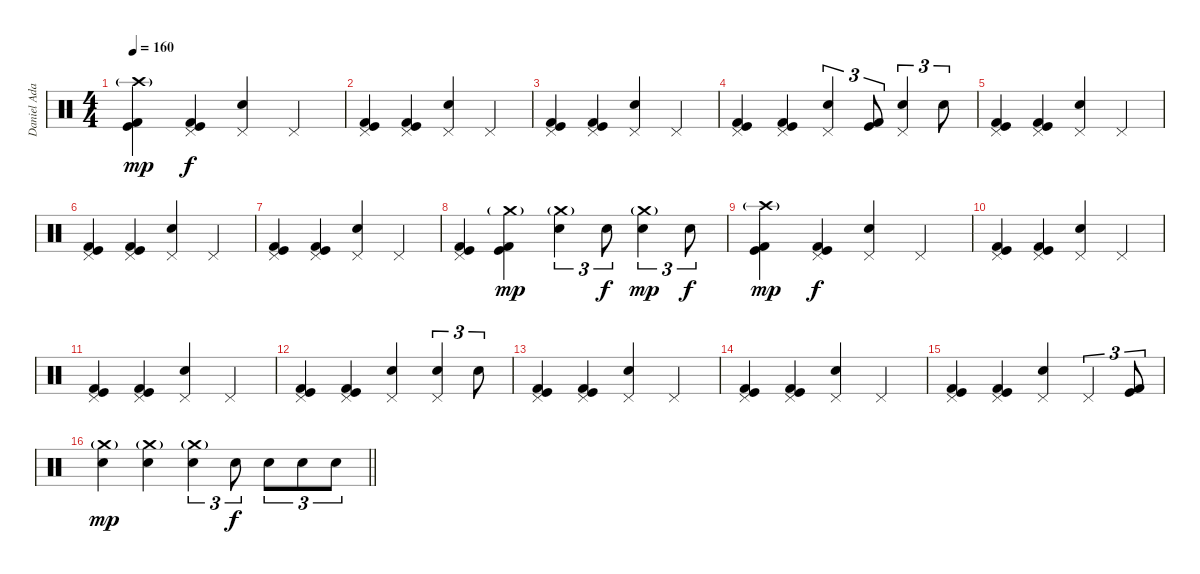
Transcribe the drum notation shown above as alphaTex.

\track ("Daniel Adair" "Daniel Ada") {instrument percussion}
\staff {score}
\articulation defaults
\ts (4 4)
\tempo 160
\clef neutral
\ks c
("Crash high (hit)"{g} "Kick (hit)" "Kick (hit) 2").4{dy mp} ("Pedal Hi-Hat (hit)" "Kick (hit)" "Kick (hit) 2").4{dy f} ("Pedal Hi-Hat (hit)" "Electric Snare (hit)").4 "Pedal Hi-Hat (hit)".4 |
("Pedal Hi-Hat (hit)" "Kick (hit)" "Kick (hit) 2").4 ("Pedal Hi-Hat (hit)" "Kick (hit)" "Kick (hit) 2").4 ("Pedal Hi-Hat (hit)" "Electric Snare (hit)").4 "Pedal Hi-Hat (hit)".4 |
("Pedal Hi-Hat (hit)" "Kick (hit)" "Kick (hit) 2").4 ("Pedal Hi-Hat (hit)" "Kick (hit)" "Kick (hit) 2").4 ("Pedal Hi-Hat (hit)" "Electric Snare (hit)").4 "Pedal Hi-Hat (hit)".4 |
("Pedal Hi-Hat (hit)" "Kick (hit)" "Kick (hit) 2").4 ("Pedal Hi-Hat (hit)" "Kick (hit)" "Kick (hit) 2").4 ("Pedal Hi-Hat (hit)" "Electric Snare (hit)").4{tu (3 2)} ("Kick (hit)" "Kick (hit) 2").8{tu (3 2)} ("Pedal Hi-Hat (hit)" "Electric Snare (hit)").4{tu (3 2)} "Electric Snare (hit)".8{tu (3 2)} |
("Pedal Hi-Hat (hit)" "Kick (hit)" "Kick (hit) 2").4 ("Pedal Hi-Hat (hit)" "Kick (hit)" "Kick (hit) 2").4 ("Pedal Hi-Hat (hit)" "Electric Snare (hit)").4 "Pedal Hi-Hat (hit)".4 |
("Pedal Hi-Hat (hit)" "Kick (hit)" "Kick (hit) 2").4 ("Pedal Hi-Hat (hit)" "Kick (hit)" "Kick (hit) 2").4 ("Pedal Hi-Hat (hit)" "Electric Snare (hit)").4 "Pedal Hi-Hat (hit)".4 |
("Pedal Hi-Hat (hit)" "Kick (hit)" "Kick (hit) 2").4 ("Pedal Hi-Hat (hit)" "Kick (hit)" "Kick (hit) 2").4 ("Pedal Hi-Hat (hit)" "Electric Snare (hit)").4 "Pedal Hi-Hat (hit)".4 |
("Pedal Hi-Hat (hit)" "Kick (hit)" "Kick (hit) 2").4 ("Crash medium (hit)"{g} "Kick (hit)" "Kick (hit) 2").4{dy mp} ("Crash medium (hit)"{g} "Electric Snare (hit)").4{tu (3 2)} "Electric Snare (hit)".8{tu (3 2) dy f} ("Crash medium (hit)"{g} "Electric Snare (hit)").4{tu (3 2) dy mp} "Electric Snare (hit)".8{tu (3 2) dy f} |
("Crash high (hit)"{g} "Kick (hit)" "Kick (hit) 2").4{dy mp} ("Pedal Hi-Hat (hit)" "Kick (hit)" "Kick (hit) 2").4{dy f} ("Pedal Hi-Hat (hit)" "Electric Snare (hit)").4 "Pedal Hi-Hat (hit)".4 |
("Pedal Hi-Hat (hit)" "Kick (hit)" "Kick (hit) 2").4 ("Pedal Hi-Hat (hit)" "Kick (hit)" "Kick (hit) 2").4 ("Pedal Hi-Hat (hit)" "Electric Snare (hit)").4 "Pedal Hi-Hat (hit)".4 |
("Pedal Hi-Hat (hit)" "Kick (hit)" "Kick (hit) 2").4 ("Pedal Hi-Hat (hit)" "Kick (hit)" "Kick (hit) 2").4 ("Pedal Hi-Hat (hit)" "Electric Snare (hit)").4 "Pedal Hi-Hat (hit)".4 |
("Pedal Hi-Hat (hit)" "Kick (hit)" "Kick (hit) 2").4 ("Pedal Hi-Hat (hit)" "Kick (hit)" "Kick (hit) 2").4 ("Pedal Hi-Hat (hit)" "Electric Snare (hit)").4 ("Pedal Hi-Hat (hit)" "Electric Snare (hit)").4{tu (3 2)} "Electric Snare (hit)".8{tu (3 2)} |
("Pedal Hi-Hat (hit)" "Kick (hit)" "Kick (hit) 2").4 ("Pedal Hi-Hat (hit)" "Kick (hit)" "Kick (hit) 2").4 ("Pedal Hi-Hat (hit)" "Electric Snare (hit)").4 "Pedal Hi-Hat (hit)".4 |
("Pedal Hi-Hat (hit)" "Kick (hit)" "Kick (hit) 2").4 ("Pedal Hi-Hat (hit)" "Kick (hit)" "Kick (hit) 2").4 ("Pedal Hi-Hat (hit)" "Electric Snare (hit)").4 "Pedal Hi-Hat (hit)".4 |
("Pedal Hi-Hat (hit)" "Kick (hit)" "Kick (hit) 2").4 ("Pedal Hi-Hat (hit)" "Kick (hit)" "Kick (hit) 2").4 ("Pedal Hi-Hat (hit)" "Electric Snare (hit)").4 "Pedal Hi-Hat (hit)".4{tu (3 2)} ("Kick (hit)" "Kick (hit) 2").8{tu (3 2)} |
\barLineRight lightlight
("Crash medium (hit)"{g} "Electric Snare (hit)").4{dy mp} ("Crash medium (hit)"{g} "Electric Snare (hit)").4 ("Crash medium (hit)"{g} "Electric Snare (hit)").4{tu (3 2)} "Electric Snare (hit)".8{tu (3 2) dy f} "Electric Snare (hit)".8{tu (3 2)} "Electric Snare (hit)".8{tu (3 2)} "Electric Snare (hit)".8{tu (3 2)}
